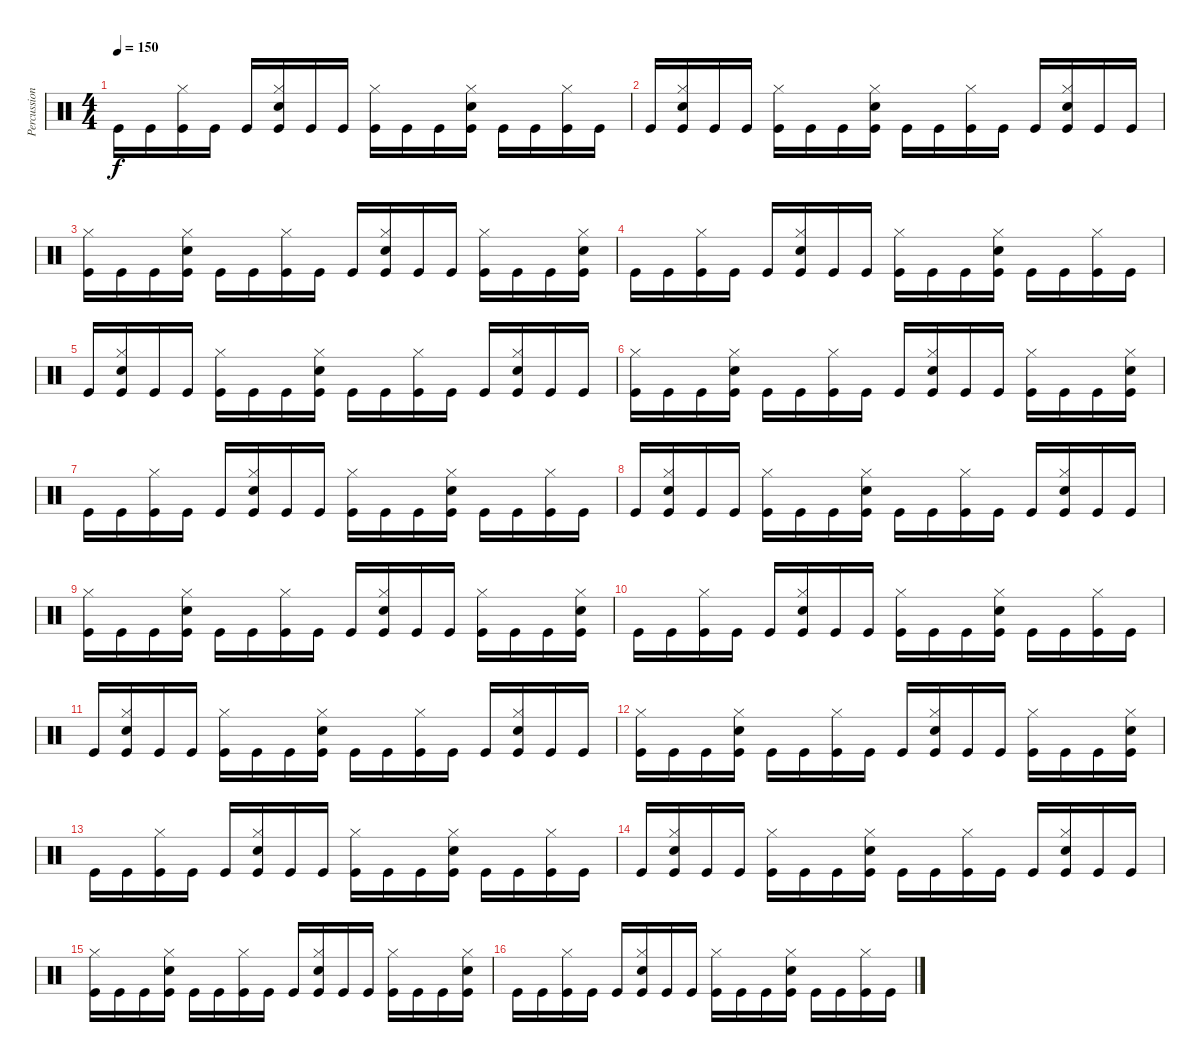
\track ("Percussion" "Percussion") {instrument percussion}
\staff {score}
\articulation defaults
\ts (4 4)
\tempo 150
\clef neutral
\ks c "Kick (hit)".16{dy f} "Kick (hit)".16
("Hi-Hat (closed)" "Kick (hit)").16 "Kick (hit)".16 "Kick (hit)".16 ("Hi-Hat (closed)" "Kick (hit)" "Snare (hit) 2").16 "Kick (hit)".16 "Kick (hit)".16 ("Hi-Hat (closed)" "Kick (hit)").16 "Kick (hit)".16 "Kick (hit)".16 ("Hi-Hat (closed)" "Kick (hit)" "Snare (hit) 2").16 "Kick (hit)".16 "Kick (hit)".16 ("Hi-Hat (closed)" "Kick (hit)").16 "Kick (hit)".16 |
"Kick (hit)".16 ("Hi-Hat (closed)" "Kick (hit)" "Snare (hit) 2").16 "Kick (hit)".16 "Kick (hit)".16 ("Hi-Hat (closed)" "Kick (hit)").16 "Kick (hit)".16 "Kick (hit)".16 ("Hi-Hat (closed)" "Kick (hit)" "Snare (hit) 2").16 "Kick (hit)".16 "Kick (hit)".16 ("Hi-Hat (closed)" "Kick (hit)").16 "Kick (hit)".16 "Kick (hit)".16 ("Hi-Hat (closed)" "Kick (hit)" "Snare (hit) 2").16 "Kick (hit)".16 "Kick (hit)".16 |
("Hi-Hat (closed)" "Kick (hit)").16 "Kick (hit)".16 "Kick (hit)".16 ("Hi-Hat (closed)" "Kick (hit)" "Snare (hit) 2").16 "Kick (hit)".16 "Kick (hit)".16 ("Hi-Hat (closed)" "Kick (hit)").16 "Kick (hit)".16 "Kick (hit)".16 ("Hi-Hat (closed)" "Kick (hit)" "Snare (hit) 2").16 "Kick (hit)".16 "Kick (hit)".16 ("Hi-Hat (closed)" "Kick (hit)").16 "Kick (hit)".16 "Kick (hit)".16 ("Hi-Hat (closed)" "Kick (hit)" "Snare (hit) 2").16 |
"Kick (hit)".16 "Kick (hit)".16 ("Hi-Hat (closed)" "Kick (hit)").16 "Kick (hit)".16 "Kick (hit)".16 ("Hi-Hat (closed)" "Kick (hit)" "Snare (hit) 2").16 "Kick (hit)".16 "Kick (hit)".16 ("Hi-Hat (closed)" "Kick (hit)").16 "Kick (hit)".16 "Kick (hit)".16 ("Hi-Hat (closed)" "Kick (hit)" "Snare (hit) 2").16 "Kick (hit)".16 "Kick (hit)".16 ("Hi-Hat (closed)" "Kick (hit)").16 "Kick (hit)".16 |
"Kick (hit)".16 ("Hi-Hat (closed)" "Kick (hit)" "Snare (hit) 2").16 "Kick (hit)".16 "Kick (hit)".16 ("Hi-Hat (closed)" "Kick (hit)").16 "Kick (hit)".16 "Kick (hit)".16 ("Hi-Hat (closed)" "Kick (hit)" "Snare (hit) 2").16 "Kick (hit)".16 "Kick (hit)".16 ("Hi-Hat (closed)" "Kick (hit)").16 "Kick (hit)".16 "Kick (hit)".16 ("Hi-Hat (closed)" "Kick (hit)" "Snare (hit) 2").16 "Kick (hit)".16 "Kick (hit)".16 |
("Hi-Hat (closed)" "Kick (hit)").16 "Kick (hit)".16 "Kick (hit)".16 ("Hi-Hat (closed)" "Kick (hit)" "Snare (hit) 2").16 "Kick (hit)".16 "Kick (hit)".16 ("Hi-Hat (closed)" "Kick (hit)").16 "Kick (hit)".16 "Kick (hit)".16 ("Hi-Hat (closed)" "Kick (hit)" "Snare (hit) 2").16 "Kick (hit)".16 "Kick (hit)".16 ("Hi-Hat (closed)" "Kick (hit)").16 "Kick (hit)".16 "Kick (hit)".16 ("Hi-Hat (closed)" "Kick (hit)" "Snare (hit) 2").16 |
"Kick (hit)".16 "Kick (hit)".16 ("Hi-Hat (closed)" "Kick (hit)").16 "Kick (hit)".16 "Kick (hit)".16 ("Hi-Hat (closed)" "Kick (hit)" "Snare (hit) 2").16 "Kick (hit)".16 "Kick (hit)".16 ("Hi-Hat (closed)" "Kick (hit)").16 "Kick (hit)".16 "Kick (hit)".16 ("Hi-Hat (closed)" "Kick (hit)" "Snare (hit) 2").16 "Kick (hit)".16 "Kick (hit)".16 ("Hi-Hat (closed)" "Kick (hit)").16 "Kick (hit)".16 |
"Kick (hit)".16 ("Hi-Hat (closed)" "Kick (hit)" "Snare (hit) 2").16 "Kick (hit)".16 "Kick (hit)".16 ("Hi-Hat (closed)" "Kick (hit)").16 "Kick (hit)".16 "Kick (hit)".16 ("Hi-Hat (closed)" "Kick (hit)" "Snare (hit) 2").16 "Kick (hit)".16 "Kick (hit)".16 ("Hi-Hat (closed)" "Kick (hit)").16 "Kick (hit)".16 "Kick (hit)".16 ("Hi-Hat (closed)" "Kick (hit)" "Snare (hit) 2").16 "Kick (hit)".16 "Kick (hit)".16 |
("Hi-Hat (closed)" "Kick (hit)").16 "Kick (hit)".16 "Kick (hit)".16 ("Hi-Hat (closed)" "Kick (hit)" "Snare (hit) 2").16 "Kick (hit)".16 "Kick (hit)".16 ("Hi-Hat (closed)" "Kick (hit)").16 "Kick (hit)".16 "Kick (hit)".16 ("Hi-Hat (closed)" "Kick (hit)" "Snare (hit) 2").16 "Kick (hit)".16 "Kick (hit)".16 ("Hi-Hat (closed)" "Kick (hit)").16 "Kick (hit)".16 "Kick (hit)".16 ("Hi-Hat (closed)" "Kick (hit)" "Snare (hit) 2").16 |
"Kick (hit)".16 "Kick (hit)".16 ("Hi-Hat (closed)" "Kick (hit)").16 "Kick (hit)".16 "Kick (hit)".16 ("Hi-Hat (closed)" "Kick (hit)" "Snare (hit) 2").16 "Kick (hit)".16 "Kick (hit)".16 ("Hi-Hat (closed)" "Kick (hit)").16 "Kick (hit)".16 "Kick (hit)".16 ("Hi-Hat (closed)" "Kick (hit)" "Snare (hit) 2").16 "Kick (hit)".16 "Kick (hit)".16 ("Hi-Hat (closed)" "Kick (hit)").16 "Kick (hit)".16 |
"Kick (hit)".16 ("Hi-Hat (closed)" "Kick (hit)" "Snare (hit) 2").16 "Kick (hit)".16 "Kick (hit)".16 ("Hi-Hat (closed)" "Kick (hit)").16 "Kick (hit)".16 "Kick (hit)".16 ("Hi-Hat (closed)" "Kick (hit)" "Snare (hit) 2").16 "Kick (hit)".16 "Kick (hit)".16 ("Hi-Hat (closed)" "Kick (hit)").16 "Kick (hit)".16 "Kick (hit)".16 ("Hi-Hat (closed)" "Kick (hit)" "Snare (hit) 2").16 "Kick (hit)".16 "Kick (hit)".16 |
("Hi-Hat (closed)" "Kick (hit)").16 "Kick (hit)".16 "Kick (hit)".16 ("Hi-Hat (closed)" "Kick (hit)" "Snare (hit) 2").16 "Kick (hit)".16 "Kick (hit)".16 ("Hi-Hat (closed)" "Kick (hit)").16 "Kick (hit)".16 "Kick (hit)".16 ("Hi-Hat (closed)" "Kick (hit)" "Snare (hit) 2").16 "Kick (hit)".16 "Kick (hit)".16 ("Hi-Hat (closed)" "Kick (hit)").16 "Kick (hit)".16 "Kick (hit)".16 ("Hi-Hat (closed)" "Kick (hit)" "Snare (hit) 2").16 |
"Kick (hit)".16 "Kick (hit)".16 ("Hi-Hat (closed)" "Kick (hit)").16 "Kick (hit)".16 "Kick (hit)".16 ("Hi-Hat (closed)" "Kick (hit)" "Snare (hit) 2").16 "Kick (hit)".16 "Kick (hit)".16 ("Hi-Hat (closed)" "Kick (hit)").16 "Kick (hit)".16 "Kick (hit)".16 ("Hi-Hat (closed)" "Kick (hit)" "Snare (hit) 2").16 "Kick (hit)".16 "Kick (hit)".16 ("Hi-Hat (closed)" "Kick (hit)").16 "Kick (hit)".16 |
"Kick (hit)".16 ("Hi-Hat (closed)" "Kick (hit)" "Snare (hit) 2").16 "Kick (hit)".16 "Kick (hit)".16 ("Hi-Hat (closed)" "Kick (hit)").16 "Kick (hit)".16 "Kick (hit)".16 ("Hi-Hat (closed)" "Kick (hit)" "Snare (hit) 2").16 "Kick (hit)".16 "Kick (hit)".16 ("Hi-Hat (closed)" "Kick (hit)").16 "Kick (hit)".16 "Kick (hit)".16 ("Hi-Hat (closed)" "Kick (hit)" "Snare (hit) 2").16 "Kick (hit)".16 "Kick (hit)".16 |
("Hi-Hat (closed)" "Kick (hit)").16 "Kick (hit)".16 "Kick (hit)".16 ("Hi-Hat (closed)" "Kick (hit)" "Snare (hit) 2").16 "Kick (hit)".16 "Kick (hit)".16 ("Hi-Hat (closed)" "Kick (hit)").16 "Kick (hit)".16 "Kick (hit)".16 ("Hi-Hat (closed)" "Kick (hit)" "Snare (hit) 2").16 "Kick (hit)".16 "Kick (hit)".16 ("Hi-Hat (closed)" "Kick (hit)").16 "Kick (hit)".16 "Kick (hit)".16 ("Hi-Hat (closed)" "Kick (hit)" "Snare (hit) 2").16 |
"Kick (hit)".16 "Kick (hit)".16 ("Hi-Hat (closed)" "Kick (hit)").16 "Kick (hit)".16 "Kick (hit)".16 ("Hi-Hat (closed)" "Kick (hit)" "Snare (hit) 2").16 "Kick (hit)".16 "Kick (hit)".16 ("Hi-Hat (closed)" "Kick (hit)").16 "Kick (hit)".16 "Kick (hit)".16 ("Hi-Hat (closed)" "Kick (hit)" "Snare (hit) 2").16 "Kick (hit)".16 "Kick (hit)".16 ("Hi-Hat (closed)" "Kick (hit)").16 "Kick (hit)".16
